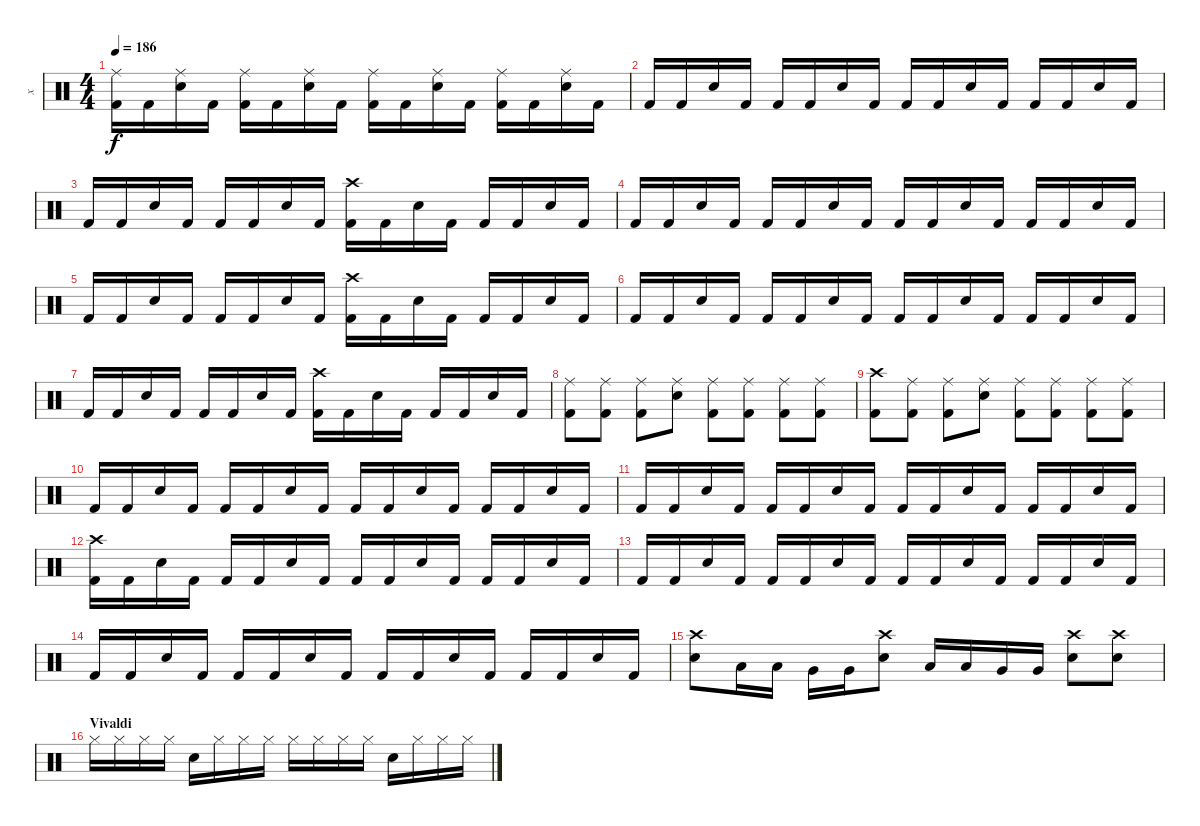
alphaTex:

\track ("x" "x") {instrument percussion}
\staff {score}
\articulation defaults
\ts (4 4)
\tempo 186
\clef neutral
\ks c
("Ride (middle)" "Kick (hit) 2").16{dy f} "Kick (hit) 2".16 ("Ride (middle)" "Snare (hit) 2").16 "Kick (hit) 2".16 ("Ride (middle)" "Kick (hit) 2").16 "Kick (hit) 2".16 ("Ride (middle)" "Snare (hit) 2").16 "Kick (hit) 2".16 ("Ride (middle)" "Kick (hit) 2").16 "Kick (hit) 2".16 ("Ride (middle)" "Snare (hit) 2").16 "Kick (hit) 2".16 ("Ride (middle)" "Kick (hit) 2").16 "Kick (hit) 2".16 ("Ride (middle)" "Snare (hit) 2").16 "Kick (hit) 2".16 |
"Kick (hit) 2".16 "Kick (hit) 2".16 "Snare (hit) 2".16 "Kick (hit) 2".16 "Kick (hit) 2".16 "Kick (hit) 2".16 "Snare (hit) 2".16 "Kick (hit) 2".16 "Kick (hit) 2".16 "Kick (hit) 2".16 "Snare (hit) 2".16 "Kick (hit) 2".16 "Kick (hit) 2".16 "Kick (hit) 2".16 "Snare (hit) 2".16 "Kick (hit) 2".16 |
"Kick (hit) 2".16 "Kick (hit) 2".16 "Snare (hit) 2".16 "Kick (hit) 2".16 "Kick (hit) 2".16 "Kick (hit) 2".16 "Snare (hit) 2".16 "Kick (hit) 2".16 ("Crash high (hit)" "Kick (hit) 2").16 "Kick (hit) 2".16 "Snare (hit) 2".16 "Kick (hit) 2".16 "Kick (hit) 2".16 "Kick (hit) 2".16 "Snare (hit) 2".16 "Kick (hit) 2".16 |
"Kick (hit) 2".16 "Kick (hit) 2".16 "Snare (hit) 2".16 "Kick (hit) 2".16 "Kick (hit) 2".16 "Kick (hit) 2".16 "Snare (hit) 2".16 "Kick (hit) 2".16 "Kick (hit) 2".16 "Kick (hit) 2".16 "Snare (hit) 2".16 "Kick (hit) 2".16 "Kick (hit) 2".16 "Kick (hit) 2".16 "Snare (hit) 2".16 "Kick (hit) 2".16 |
"Kick (hit) 2".16 "Kick (hit) 2".16 "Snare (hit) 2".16 "Kick (hit) 2".16 "Kick (hit) 2".16 "Kick (hit) 2".16 "Snare (hit) 2".16 "Kick (hit) 2".16 ("Crash high (hit)" "Kick (hit) 2").16 "Kick (hit) 2".16 "Snare (hit) 2".16 "Kick (hit) 2".16 "Kick (hit) 2".16 "Kick (hit) 2".16 "Snare (hit) 2".16 "Kick (hit) 2".16 |
"Kick (hit) 2".16 "Kick (hit) 2".16 "Snare (hit) 2".16 "Kick (hit) 2".16 "Kick (hit) 2".16 "Kick (hit) 2".16 "Snare (hit) 2".16 "Kick (hit) 2".16 "Kick (hit) 2".16 "Kick (hit) 2".16 "Snare (hit) 2".16 "Kick (hit) 2".16 "Kick (hit) 2".16 "Kick (hit) 2".16 "Snare (hit) 2".16 "Kick (hit) 2".16 |
"Kick (hit) 2".16 "Kick (hit) 2".16 "Snare (hit) 2".16 "Kick (hit) 2".16 "Kick (hit) 2".16 "Kick (hit) 2".16 "Snare (hit) 2".16 "Kick (hit) 2".16 ("Crash high (hit)" "Kick (hit) 2").16 "Kick (hit) 2".16 "Snare (hit) 2".16 "Kick (hit) 2".16 "Kick (hit) 2".16 "Kick (hit) 2".16 "Snare (hit) 2".16 "Kick (hit) 2".16 |
("Ride (middle)" "Kick (hit) 2").8 ("Ride (middle)" "Kick (hit) 2").8 ("Ride (middle)" "Kick (hit) 2").8 ("Ride (middle)" "Snare (hit) 2").8 ("Ride (middle)" "Kick (hit) 2").8 ("Ride (middle)" "Kick (hit) 2").8 ("Ride (middle)" "Kick (hit) 2").8 ("Ride (middle)" "Kick (hit) 2").8 |
("Crash high (hit)" "Kick (hit) 2").8 ("Ride (middle)" "Kick (hit) 2").8 ("Ride (middle)" "Kick (hit) 2").8 ("Ride (middle)" "Snare (hit) 2").8 ("Ride (middle)" "Kick (hit) 2").8 ("Ride (middle)" "Kick (hit) 2").8 ("Ride (middle)" "Kick (hit) 2").8 ("Ride (middle)" "Kick (hit) 2").8 |
"Kick (hit) 2".16 "Kick (hit) 2".16 "Snare (hit) 2".16 "Kick (hit) 2".16 "Kick (hit) 2".16 "Kick (hit) 2".16 "Snare (hit) 2".16 "Kick (hit) 2".16 "Kick (hit) 2".16 "Kick (hit) 2".16 "Snare (hit) 2".16 "Kick (hit) 2".16 "Kick (hit) 2".16 "Kick (hit) 2".16 "Snare (hit) 2".16 "Kick (hit) 2".16 |
"Kick (hit) 2".16 "Kick (hit) 2".16 "Snare (hit) 2".16 "Kick (hit) 2".16 "Kick (hit) 2".16 "Kick (hit) 2".16 "Snare (hit) 2".16 "Kick (hit) 2".16 "Kick (hit) 2".16 "Kick (hit) 2".16 "Snare (hit) 2".16 "Kick (hit) 2".16 "Kick (hit) 2".16 "Kick (hit) 2".16 "Snare (hit) 2".16 "Kick (hit) 2".16 |
("Crash high (hit)" "Kick (hit) 2").16 "Kick (hit) 2".16 "Snare (hit) 2".16 "Kick (hit) 2".16 "Kick (hit) 2".16 "Kick (hit) 2".16 "Snare (hit) 2".16 "Kick (hit) 2".16 "Kick (hit) 2".16 "Kick (hit) 2".16 "Snare (hit) 2".16 "Kick (hit) 2".16 "Kick (hit) 2".16 "Kick (hit) 2".16 "Snare (hit) 2".16 "Kick (hit) 2".16 |
"Kick (hit) 2".16 "Kick (hit) 2".16 "Snare (hit) 2".16 "Kick (hit) 2".16 "Kick (hit) 2".16 "Kick (hit) 2".16 "Snare (hit) 2".16 "Kick (hit) 2".16 "Kick (hit) 2".16 "Kick (hit) 2".16 "Snare (hit) 2".16 "Kick (hit) 2".16 "Kick (hit) 2".16 "Kick (hit) 2".16 "Snare (hit) 2".16 "Kick (hit) 2".16 |
"Kick (hit) 2".16 "Kick (hit) 2".16 "Snare (hit) 2".16 "Kick (hit) 2".16 "Kick (hit) 2".16 "Kick (hit) 2".16 "Snare (hit) 2".16 "Kick (hit) 2".16 "Kick (hit) 2".16 "Kick (hit) 2".16 "Snare (hit) 2".16 "Kick (hit) 2".16 "Kick (hit) 2".16 "Kick (hit) 2".16 "Snare (hit) 2".16 "Kick (hit) 2".16 |
("Crash high (hit)" "Snare (hit) 2").8 "Low Tom (hit)".16 "Low Tom (hit)".16 "Very Low Tom (hit)".16 "Very Low Tom (hit)".16 ("Crash high (hit)" "Snare (hit) 2").8 "Low Tom (hit)".16 "Low Tom (hit)".16 "Very Low Tom (hit)".16 "Very Low Tom (hit)".16 ("Crash high (hit)" "Snare (hit) 2").8 ("Crash high (hit)" "Snare (hit) 2").8 |
\section ("" "Vivaldi")
"Hi-Hat (closed)".16 "Hi-Hat (closed)".16 "Hi-Hat (closed)".16 "Hi-Hat (closed)".16 "Snare (hit) 2".16 "Hi-Hat (closed)".16 "Hi-Hat (closed)".16 "Hi-Hat (closed)".16 "Hi-Hat (closed)".16 "Hi-Hat (closed)".16 "Hi-Hat (closed)".16 "Hi-Hat (closed)".16 "Snare (hit) 2".16 "Hi-Hat (closed)".16 "Hi-Hat (closed)".16 "Hi-Hat (closed)".16
